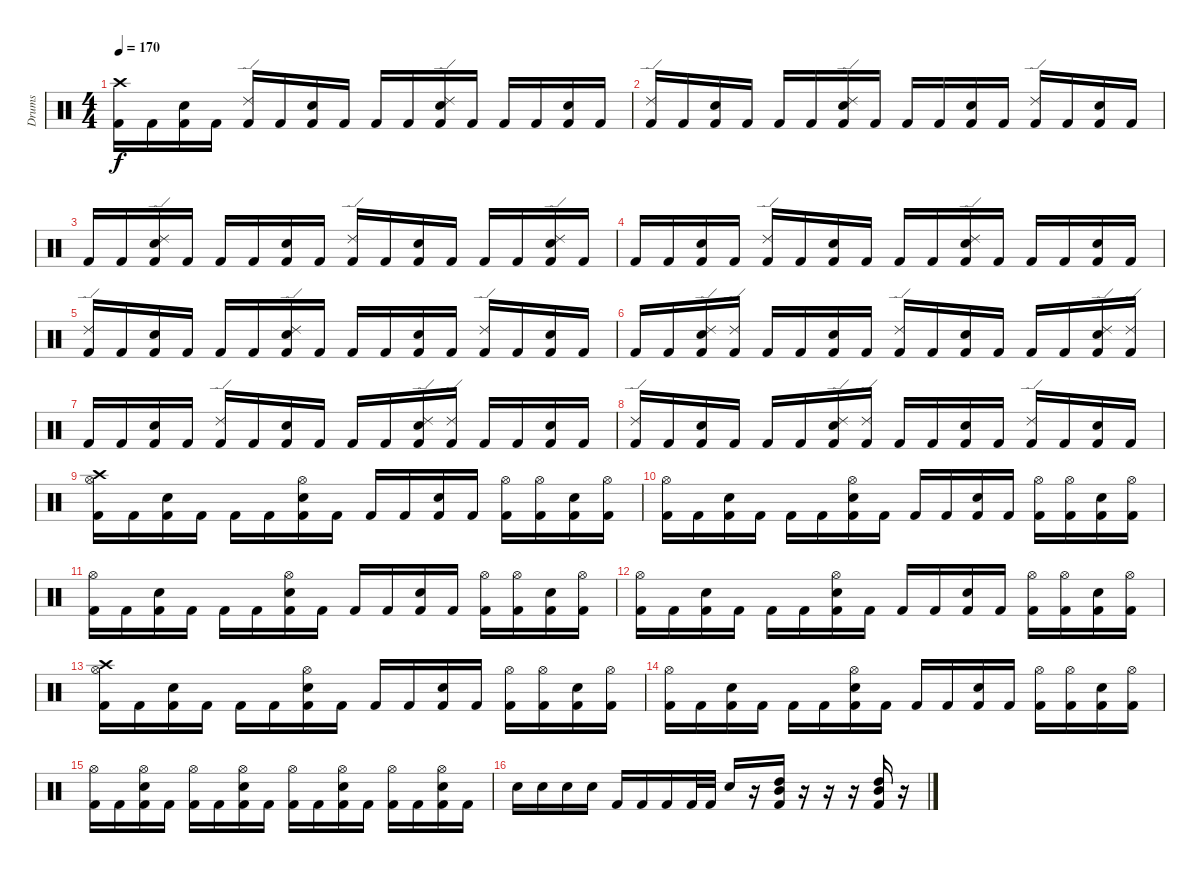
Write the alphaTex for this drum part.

\track ("Drums" "Drums") {instrument percussion}
\staff {score}
\articulation defaults
\ts (4 4)
\tempo 170
\clef neutral
\ks c
("Kick (hit) 2" "Crash high (hit)").16{dy f} "Kick (hit) 2".16 ("Kick (hit) 2" "Electric Snare (hit)").16 "Kick (hit) 2".16 ("Kick (hit) 2" "Ride (edge) 2").16 "Kick (hit) 2".16 ("Kick (hit) 2" "Electric Snare (hit)").16 "Kick (hit) 2".16 "Kick (hit) 2".16 "Kick (hit) 2".16 ("Kick (hit) 2" "Electric Snare (hit)" "Ride (edge) 2").16 "Kick (hit) 2".16 "Kick (hit) 2".16 "Kick (hit) 2".16 ("Kick (hit) 2" "Electric Snare (hit)").16 "Kick (hit) 2".16 |
("Kick (hit) 2" "Ride (edge) 2").16 "Kick (hit) 2".16 ("Kick (hit) 2" "Electric Snare (hit)").16 "Kick (hit) 2".16 "Kick (hit) 2".16 "Kick (hit) 2".16 ("Kick (hit) 2" "Electric Snare (hit)" "Ride (edge) 2").16 "Kick (hit) 2".16 "Kick (hit) 2".16 "Kick (hit) 2".16 ("Kick (hit) 2" "Electric Snare (hit)").16 "Kick (hit) 2".16 ("Kick (hit) 2" "Ride (edge) 2").16 "Kick (hit) 2".16 ("Kick (hit) 2" "Electric Snare (hit)").16 "Kick (hit) 2".16 |
"Kick (hit) 2".16 "Kick (hit) 2".16 ("Kick (hit) 2" "Electric Snare (hit)" "Ride (edge) 2").16 "Kick (hit) 2".16 "Kick (hit) 2".16 "Kick (hit) 2".16 ("Kick (hit) 2" "Electric Snare (hit)").16 "Kick (hit) 2".16 ("Kick (hit) 2" "Ride (edge) 2").16 "Kick (hit) 2".16 ("Kick (hit) 2" "Electric Snare (hit)").16 "Kick (hit) 2".16 "Kick (hit) 2".16 "Kick (hit) 2".16 ("Kick (hit) 2" "Electric Snare (hit)" "Ride (edge) 2").16 "Kick (hit) 2".16 |
"Kick (hit) 2".16 "Kick (hit) 2".16 ("Kick (hit) 2" "Electric Snare (hit)").16 "Kick (hit) 2".16 ("Kick (hit) 2" "Ride (edge) 2").16 "Kick (hit) 2".16 ("Kick (hit) 2" "Electric Snare (hit)").16 "Kick (hit) 2".16 "Kick (hit) 2".16 "Kick (hit) 2".16 ("Kick (hit) 2" "Electric Snare (hit)" "Ride (edge) 2").16 "Kick (hit) 2".16 "Kick (hit) 2".16 "Kick (hit) 2".16 ("Kick (hit) 2" "Electric Snare (hit)").16 "Kick (hit) 2".16 |
("Kick (hit) 2" "Ride (edge) 2").16 "Kick (hit) 2".16 ("Kick (hit) 2" "Electric Snare (hit)").16 "Kick (hit) 2".16 "Kick (hit) 2".16 "Kick (hit) 2".16 ("Kick (hit) 2" "Electric Snare (hit)" "Ride (edge) 2").16 "Kick (hit) 2".16 "Kick (hit) 2".16 "Kick (hit) 2".16 ("Kick (hit) 2" "Electric Snare (hit)").16 "Kick (hit) 2".16 ("Kick (hit) 2" "Ride (edge) 2").16 "Kick (hit) 2".16 ("Kick (hit) 2" "Electric Snare (hit)").16 "Kick (hit) 2".16 |
"Kick (hit) 2".16 "Kick (hit) 2".16 ("Kick (hit) 2" "Electric Snare (hit)" "Ride (edge) 2").16 ("Kick (hit) 2" "Ride (edge) 2").16 "Kick (hit) 2".16 "Kick (hit) 2".16 ("Kick (hit) 2" "Electric Snare (hit)").16 "Kick (hit) 2".16 ("Kick (hit) 2" "Ride (edge) 2").16 "Kick (hit) 2".16 ("Kick (hit) 2" "Electric Snare (hit)").16 "Kick (hit) 2".16 "Kick (hit) 2".16 "Kick (hit) 2".16 ("Kick (hit) 2" "Electric Snare (hit)" "Ride (edge) 2").16 ("Kick (hit) 2" "Ride (edge) 2").16 |
"Kick (hit) 2".16 "Kick (hit) 2".16 ("Kick (hit) 2" "Electric Snare (hit)").16 "Kick (hit) 2".16 ("Kick (hit) 2" "Ride (edge) 2").16 "Kick (hit) 2".16 ("Kick (hit) 2" "Electric Snare (hit)").16 "Kick (hit) 2".16 "Kick (hit) 2".16 "Kick (hit) 2".16 ("Kick (hit) 2" "Electric Snare (hit)" "Ride (edge) 2").16 ("Kick (hit) 2" "Ride (edge) 2").16 "Kick (hit) 2".16 "Kick (hit) 2".16 ("Kick (hit) 2" "Electric Snare (hit)").16 "Kick (hit) 2".16 |
("Kick (hit) 2" "Ride (edge) 2").16 "Kick (hit) 2".16 ("Kick (hit) 2" "Electric Snare (hit)").16 "Kick (hit) 2".16 "Kick (hit) 2".16 "Kick (hit) 2".16 ("Kick (hit) 2" "Electric Snare (hit)" "Ride (edge) 2").16 ("Kick (hit) 2" "Ride (edge) 2").16 "Kick (hit) 2".16 "Kick (hit) 2".16 ("Kick (hit) 2" "Electric Snare (hit)").16 "Kick (hit) 2".16 ("Kick (hit) 2" "Ride (edge) 2").16 "Kick (hit) 2".16 ("Kick (hit) 2" "Electric Snare (hit)").16 "Kick (hit) 2".16 |
("Kick (hit) 2" "Crash high (hit)" "Hi-Hat (open)").16 "Kick (hit) 2".16 ("Kick (hit) 2" "Electric Snare (hit)").16 "Kick (hit) 2".16 "Kick (hit) 2".16 "Kick (hit) 2".16 ("Kick (hit) 2" "Electric Snare (hit)" "Hi-Hat (open)").16 "Kick (hit) 2".16 "Kick (hit) 2".16 "Kick (hit) 2".16 ("Kick (hit) 2" "Electric Snare (hit)").16 "Kick (hit) 2".16 ("Kick (hit) 2" "Hi-Hat (open)").16 ("Kick (hit) 2" "Hi-Hat (open)").16 ("Kick (hit) 2" "Electric Snare (hit)").16 ("Kick (hit) 2" "Hi-Hat (open)").16 |
("Kick (hit) 2" "Hi-Hat (open)").16 "Kick (hit) 2".16 ("Kick (hit) 2" "Electric Snare (hit)").16 "Kick (hit) 2".16 "Kick (hit) 2".16 "Kick (hit) 2".16 ("Kick (hit) 2" "Electric Snare (hit)" "Hi-Hat (open)").16 "Kick (hit) 2".16 "Kick (hit) 2".16 "Kick (hit) 2".16 ("Kick (hit) 2" "Electric Snare (hit)").16 "Kick (hit) 2".16 ("Kick (hit) 2" "Hi-Hat (open)").16 ("Kick (hit) 2" "Hi-Hat (open)").16 ("Kick (hit) 2" "Electric Snare (hit)").16 ("Kick (hit) 2" "Hi-Hat (open)").16 |
("Kick (hit) 2" "Hi-Hat (open)").16 "Kick (hit) 2".16 ("Kick (hit) 2" "Electric Snare (hit)").16 "Kick (hit) 2".16 "Kick (hit) 2".16 "Kick (hit) 2".16 ("Kick (hit) 2" "Electric Snare (hit)" "Hi-Hat (open)").16 "Kick (hit) 2".16 "Kick (hit) 2".16 "Kick (hit) 2".16 ("Kick (hit) 2" "Electric Snare (hit)").16 "Kick (hit) 2".16 ("Kick (hit) 2" "Hi-Hat (open)").16 ("Kick (hit) 2" "Hi-Hat (open)").16 ("Kick (hit) 2" "Electric Snare (hit)").16 ("Kick (hit) 2" "Hi-Hat (open)").16 |
("Kick (hit) 2" "Hi-Hat (open)").16 "Kick (hit) 2".16 ("Kick (hit) 2" "Electric Snare (hit)").16 "Kick (hit) 2".16 "Kick (hit) 2".16 "Kick (hit) 2".16 ("Kick (hit) 2" "Electric Snare (hit)" "Hi-Hat (open)").16 "Kick (hit) 2".16 "Kick (hit) 2".16 "Kick (hit) 2".16 ("Kick (hit) 2" "Electric Snare (hit)").16 "Kick (hit) 2".16 ("Kick (hit) 2" "Hi-Hat (open)").16 ("Kick (hit) 2" "Hi-Hat (open)").16 ("Kick (hit) 2" "Electric Snare (hit)").16 ("Kick (hit) 2" "Hi-Hat (open)").16 |
("Kick (hit) 2" "Crash high (hit)" "Hi-Hat (open)").16 "Kick (hit) 2".16 ("Kick (hit) 2" "Electric Snare (hit)").16 "Kick (hit) 2".16 "Kick (hit) 2".16 "Kick (hit) 2".16 ("Kick (hit) 2" "Electric Snare (hit)" "Hi-Hat (open)").16 "Kick (hit) 2".16 "Kick (hit) 2".16 "Kick (hit) 2".16 ("Kick (hit) 2" "Electric Snare (hit)").16 "Kick (hit) 2".16 ("Kick (hit) 2" "Hi-Hat (open)").16 ("Kick (hit) 2" "Hi-Hat (open)").16 ("Kick (hit) 2" "Electric Snare (hit)").16 ("Kick (hit) 2" "Hi-Hat (open)").16 |
("Kick (hit) 2" "Hi-Hat (open)").16 "Kick (hit) 2".16 ("Kick (hit) 2" "Electric Snare (hit)").16 "Kick (hit) 2".16 "Kick (hit) 2".16 "Kick (hit) 2".16 ("Kick (hit) 2" "Electric Snare (hit)" "Hi-Hat (open)").16 "Kick (hit) 2".16 "Kick (hit) 2".16 "Kick (hit) 2".16 ("Kick (hit) 2" "Electric Snare (hit)").16 "Kick (hit) 2".16 ("Kick (hit) 2" "Hi-Hat (open)").16 ("Kick (hit) 2" "Hi-Hat (open)").16 ("Kick (hit) 2" "Electric Snare (hit)").16 ("Kick (hit) 2" "Hi-Hat (open)").16 |
("Kick (hit) 2" "Hi-Hat (open)").16 "Kick (hit) 2".16 ("Kick (hit) 2" "Electric Snare (hit)" "Hi-Hat (open)").16 "Kick (hit) 2".16 ("Kick (hit) 2" "Hi-Hat (open)").16 "Kick (hit) 2".16 ("Kick (hit) 2" "Electric Snare (hit)" "Hi-Hat (open)").16 "Kick (hit) 2".16 ("Kick (hit) 2" "Hi-Hat (open)").16 "Kick (hit) 2".16 ("Kick (hit) 2" "Electric Snare (hit)" "Hi-Hat (open)").16 "Kick (hit) 2".16 ("Kick (hit) 2" "Hi-Hat (open)").16 "Kick (hit) 2".16 ("Kick (hit) 2" "Electric Snare (hit)" "Hi-Hat (open)").16 "Kick (hit) 2".16 |
"Electric Snare (hit)".16 "Electric Snare (hit)".16 "Electric Snare (hit)".16 "Electric Snare (hit)".16 "Kick (hit) 2".16 "Kick (hit) 2".16 "Kick (hit) 2".16 "Kick (hit) 2".32 "Kick (hit) 2".32 "Electric Snare (hit)".16 r.16 ("Kick (hit) 2" "Mid Tom (hit)" "High Tom (hit)").16 r.16 r.16 r.16 ("Kick (hit) 2" "Mid Tom (hit)" "High Tom (hit)").16 r.16
